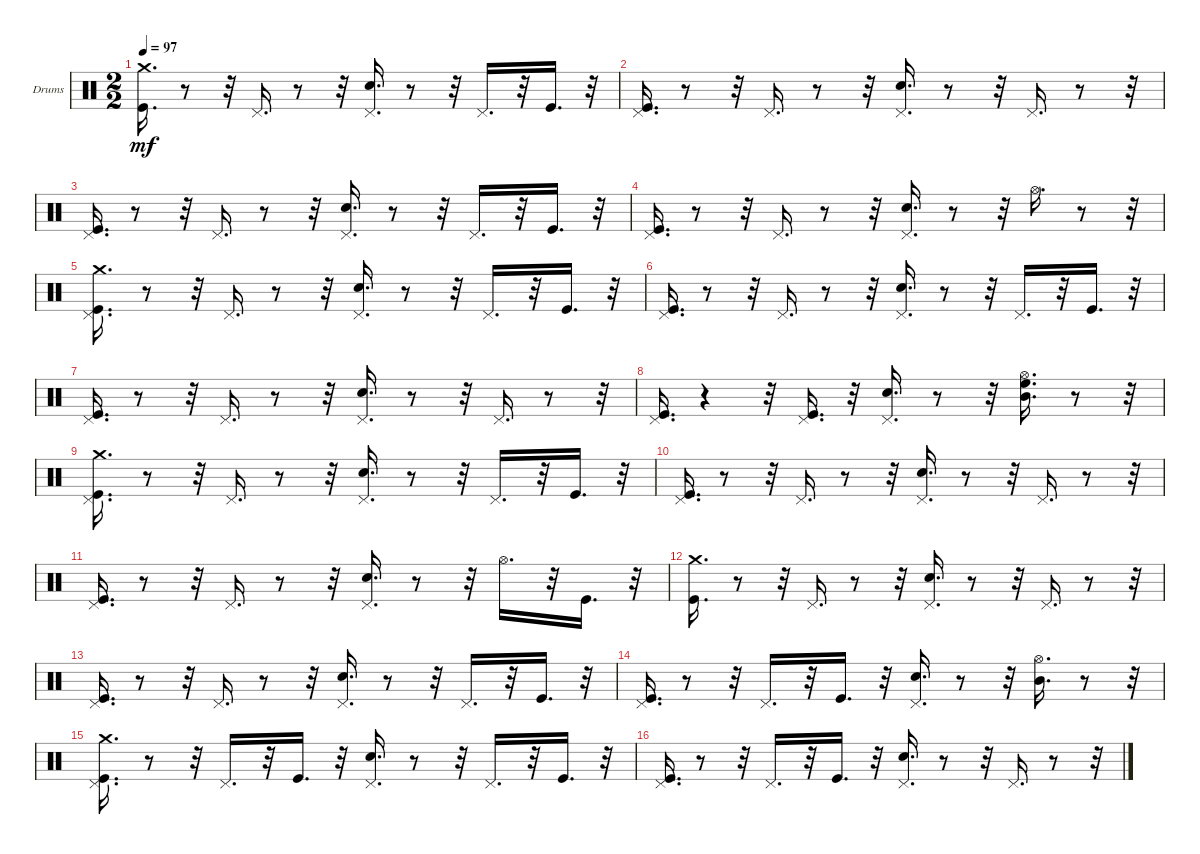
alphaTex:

\bracketExtendMode groupsimilarinstruments
\firstSystemTrackNameOrientation horizontal
\otherSystemsTrackNameOrientation horizontal
\track ("Percusion" "Drums") {instrument percussion}
\staff {score}
\articulation defaults
\ts (2 2)
\tempo 97
\clef neutral
\ks c
("Crash medium (hit)" "Kick (hit)").16{d dy mf} r.8 r.32 "Pedal Hi-Hat (hit)".16{d} r.8 r.32 ("Pedal Hi-Hat (hit)" "Snare (hit) 2").16{d} r.8 r.32 "Pedal Hi-Hat (hit)".16{d} r.32 "Kick (hit)".16{d} r.32 |
("Pedal Hi-Hat (hit)" "Kick (hit)").16{d} r.8 r.32 "Pedal Hi-Hat (hit)".16{d} r.8 r.32 ("Pedal Hi-Hat (hit)" "Snare (hit) 2").16{d} r.8 r.32 "Pedal Hi-Hat (hit)".16{d} r.8 r.32 |
("Pedal Hi-Hat (hit)" "Kick (hit)").16{d} r.8 r.32 "Pedal Hi-Hat (hit)".16{d} r.8 r.32 ("Pedal Hi-Hat (hit)" "Snare (hit) 2").16{d} r.8 r.32 "Pedal Hi-Hat (hit)".16{d} r.32 "Kick (hit)".16{d} r.32 |
("Pedal Hi-Hat (hit)" "Kick (hit)").16{d} r.8 r.32 "Pedal Hi-Hat (hit)".16{d} r.8 r.32 ("Pedal Hi-Hat (hit)" "Snare (hit) 2").16{d} r.8 r.32 "Hi-Hat (open)".16{d} r.8 r.32 |
("Crash medium (hit)" "Pedal Hi-Hat (hit)" "Kick (hit)").16{d} r.8 r.32 "Pedal Hi-Hat (hit)".16{d} r.8 r.32 ("Pedal Hi-Hat (hit)" "Snare (hit) 2").16{d} r.8 r.32 "Pedal Hi-Hat (hit)".16{d} r.32 "Kick (hit)".16{d} r.32 |
("Pedal Hi-Hat (hit)" "Kick (hit)").16{d} r.8 r.32 "Pedal Hi-Hat (hit)".16{d} r.8 r.32 ("Pedal Hi-Hat (hit)" "Snare (hit) 2").16{d} r.8 r.32 "Pedal Hi-Hat (hit)".16{d} r.32 "Kick (hit)".16{d} r.32 |
("Pedal Hi-Hat (hit)" "Kick (hit)").16{d} r.8 r.32 "Pedal Hi-Hat (hit)".16{d} r.8 r.32 ("Pedal Hi-Hat (hit)" "Snare (hit) 2").16{d} r.8 r.32 "Pedal Hi-Hat (hit)".16{d} r.8 r.32 |
("Pedal Hi-Hat (hit)" "Kick (hit)").16{d} r.4 r.32 ("Pedal Hi-Hat (hit)" "Kick (hit)").16{d} r.32 ("Pedal Hi-Hat (hit)" "Snare (hit) 2").16{d} r.8 r.32 ("Hi-Hat (open)" "Mid Tom (hit)" "High Floor Tom (hit)").16{d} r.8 r.32 |
("Crash medium (hit)" "Pedal Hi-Hat (hit)" "Kick (hit)").16{d} r.8 r.32 "Pedal Hi-Hat (hit)".16{d} r.8 r.32 ("Pedal Hi-Hat (hit)" "Snare (hit) 2").16{d} r.8 r.32 "Pedal Hi-Hat (hit)".16{d} r.32 "Kick (hit)".16{d} r.32 |
("Pedal Hi-Hat (hit)" "Kick (hit)").16{d} r.8 r.32 "Pedal Hi-Hat (hit)".16{d} r.8 r.32 ("Pedal Hi-Hat (hit)" "Snare (hit) 2").16{d} r.8 r.32 "Pedal Hi-Hat (hit)".16{d} r.8 r.32 |
("Pedal Hi-Hat (hit)" "Kick (hit)").16{d} r.8 r.32 "Pedal Hi-Hat (hit)".16{d} r.8 r.32 ("Pedal Hi-Hat (hit)" "Snare (hit) 2").16{d} r.8 r.32 "Hi-Hat (open)".16{d} r.32 "Kick (hit)".16{d} r.32 |
("Crash medium (hit)" "Kick (hit)").16{d} r.8 r.32 "Pedal Hi-Hat (hit)".16{d} r.8 r.32 ("Pedal Hi-Hat (hit)" "Snare (hit) 2").16{d} r.8 r.32 "Pedal Hi-Hat (hit)".16{d} r.8 r.32 |
("Pedal Hi-Hat (hit)" "Kick (hit)").16{d} r.8 r.32 "Pedal Hi-Hat (hit)".16{d} r.8 r.32 ("Pedal Hi-Hat (hit)" "Snare (hit) 2").16{d} r.8 r.32 "Pedal Hi-Hat (hit)".16{d} r.32 "Kick (hit)".16{d} r.32 |
("Pedal Hi-Hat (hit)" "Kick (hit)").16{d} r.8 r.32 "Pedal Hi-Hat (hit)".16{d} r.32 "Kick (hit)".16{d} r.32 ("Pedal Hi-Hat (hit)" "Snare (hit) 2").16{d} r.8 r.32 ("Hi-Hat (open)" "Mid Tom (hit)").16{d} r.8 r.32 |
("Crash medium (hit)" "Pedal Hi-Hat (hit)" "Kick (hit)").16{d} r.8 r.32 "Pedal Hi-Hat (hit)".16{d} r.32 "Kick (hit)".16{d} r.32 ("Pedal Hi-Hat (hit)" "Snare (hit) 2").16{d} r.8 r.32 "Pedal Hi-Hat (hit)".16{d} r.32 "Kick (hit)".16{d} r.32 |
("Pedal Hi-Hat (hit)" "Kick (hit)").16{d} r.8 r.32 "Pedal Hi-Hat (hit)".16{d} r.32 "Kick (hit)".16{d} r.32 ("Pedal Hi-Hat (hit)" "Snare (hit) 2").16{d} r.8 r.32 "Pedal Hi-Hat (hit)".16{d} r.8 r.32
